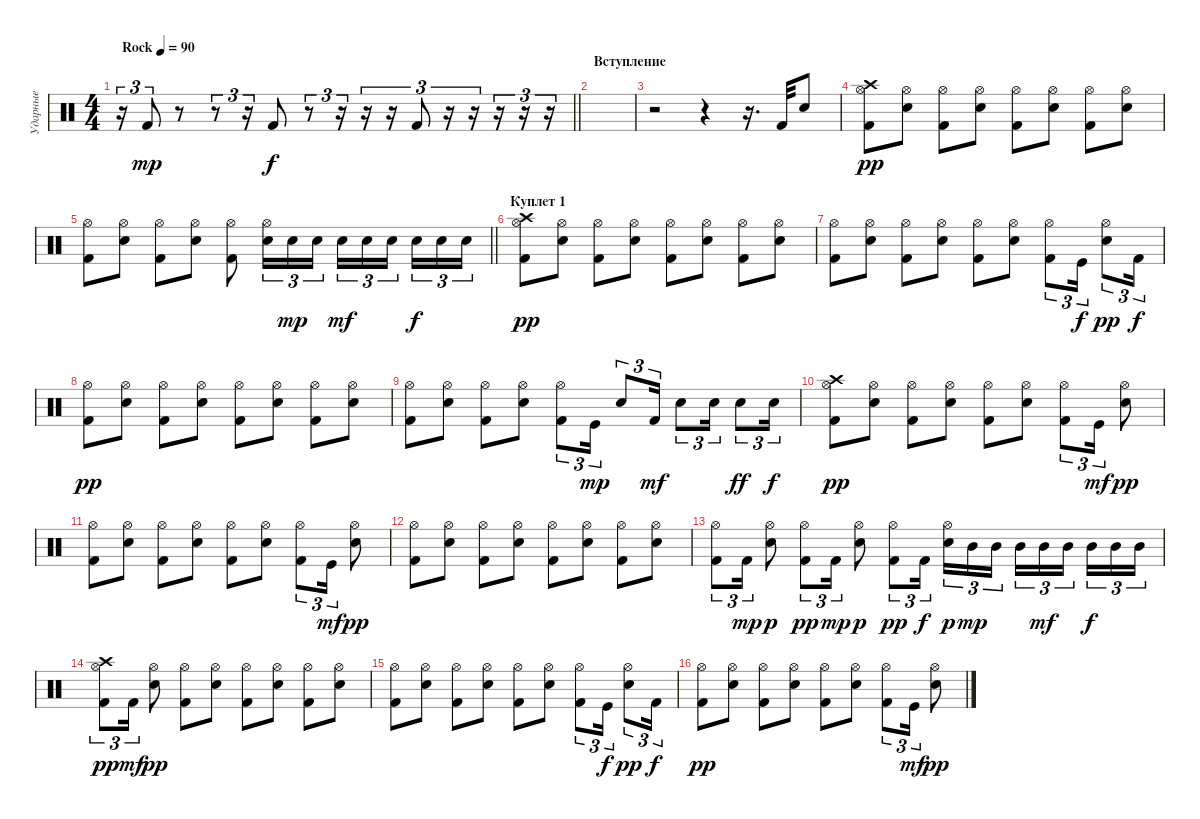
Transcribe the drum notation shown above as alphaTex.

\track ("Ударные" "Ударные") {instrument percussion}
\staff {score}
\articulation defaults
\ts (4 4)
\tempo (90 "Rock")
\clef neutral
\barLineRight lightlight
\ks c
r.16{tu (3 2) dy mp} "Kick (hit) 2".8{tu (3 2)} r.8 r.8{tu (3 2)} r.16{tu (3 2)} "Kick (hit) 2".8{dy f} r.8{tu (3 2)} r.16{tu (3 2)} r.16{tu (3 2)} r.16{tu (3 2)} "Kick (hit) 2".8{tu (3 2)} r.16{tu (3 2)} r.16{tu (3 2)} r.16{tu (3 2)} r.16{tu (3 2)} r.16{tu (3 2)} |
\section ("" "Вступление")
|
r.2 r.4 r.16{d} "Kick (hit) 2".32 "Snare (hit) 2".8 |
("Crash high (hit)" "Hi-Hat (open)" "Kick (hit) 2").8{dy pp} ("Hi-Hat (open)" "Snare (hit) 2").8 ("Hi-Hat (open)" "Kick (hit) 2").8 ("Hi-Hat (open)" "Snare (hit) 2").8 ("Hi-Hat (open)" "Kick (hit) 2").8 ("Hi-Hat (open)" "Snare (hit) 2").8 ("Hi-Hat (open)" "Kick (hit) 2").8 ("Hi-Hat (open)" "Snare (hit) 2").8 |
\barLineRight lightlight
("Hi-Hat (open)" "Kick (hit) 2").8 ("Hi-Hat (open)" "Snare (hit) 2").8 ("Hi-Hat (open)" "Kick (hit) 2").8 ("Hi-Hat (open)" "Snare (hit) 2").8 ("Hi-Hat (open)" "Kick (hit) 2").8 ("Hi-Hat (open)" "Snare (hit) 2").16{tu (3 2)} "Snare (hit) 2".16{tu (3 2) dy mp} "Snare (hit) 2".16{tu (3 2)} "Snare (hit) 2".16{tu (3 2) dy mf} "Snare (hit) 2".16{tu (3 2)} "Snare (hit) 2".16{tu (3 2) beam splitsecondary} "Snare (hit) 2".16{tu (3 2) dy f} "Snare (hit) 2".16{tu (3 2)} "Snare (hit) 2".16{tu (3 2)} |
\section ("" "Куплет 1")
("Crash high (hit)" "Hi-Hat (open)" "Kick (hit) 2").8{dy pp} ("Hi-Hat (open)" "Snare (hit) 2").8 ("Hi-Hat (open)" "Kick (hit) 2").8 ("Hi-Hat (open)" "Snare (hit) 2").8 ("Hi-Hat (open)" "Kick (hit) 2").8 ("Hi-Hat (open)" "Snare (hit) 2").8 ("Hi-Hat (open)" "Kick (hit) 2").8 ("Hi-Hat (open)" "Snare (hit) 2").8 |
("Hi-Hat (open)" "Kick (hit) 2").8 ("Hi-Hat (open)" "Snare (hit) 2").8 ("Hi-Hat (open)" "Kick (hit) 2").8 ("Hi-Hat (open)" "Snare (hit) 2").8 ("Hi-Hat (open)" "Kick (hit) 2").8 ("Hi-Hat (open)" "Snare (hit) 2").8 ("Hi-Hat (open)" "Kick (hit) 2").8{tu (3 2)} "Kick (hit)".16{tu (3 2) dy f} ("Hi-Hat (open)" "Snare (hit) 2").8{tu (3 2) dy pp} "Kick (hit) 2".16{tu (3 2) dy f} |
("Hi-Hat (open)" "Kick (hit) 2").8{dy pp} ("Hi-Hat (open)" "Snare (hit) 2").8 ("Hi-Hat (open)" "Kick (hit) 2").8 ("Hi-Hat (open)" "Snare (hit) 2").8 ("Hi-Hat (open)" "Kick (hit) 2").8 ("Hi-Hat (open)" "Snare (hit) 2").8 ("Hi-Hat (open)" "Kick (hit) 2").8 ("Hi-Hat (open)" "Snare (hit) 2").8 |
("Hi-Hat (open)" "Kick (hit) 2").8 ("Hi-Hat (open)" "Snare (hit) 2").8 ("Hi-Hat (open)" "Kick (hit) 2").8 ("Hi-Hat (open)" "Snare (hit) 2").8 ("Hi-Hat (open)" "Kick (hit) 2").8{tu (3 2)} "Kick (hit)".16{tu (3 2) dy mp} "Snare (hit) 2".8{tu (3 2)} "Kick (hit) 2".16{tu (3 2) dy mf} "Electric Snare (hit)".8{tu (3 2)} "Snare (hit) 2".16{tu (3 2)} "Electric Snare (hit)".8{tu (3 2) dy ff} "Snare (hit) 2".16{tu (3 2) dy f} |
("Crash high (hit)" "Hi-Hat (open)" "Kick (hit) 2").8{dy pp} ("Hi-Hat (open)" "Snare (hit) 2").8 ("Hi-Hat (open)" "Kick (hit) 2").8 ("Hi-Hat (open)" "Snare (hit) 2").8 ("Hi-Hat (open)" "Kick (hit) 2").8 ("Hi-Hat (open)" "Snare (hit) 2").8 ("Hi-Hat (open)" "Kick (hit) 2").8{tu (3 2)} "Kick (hit)".16{tu (3 2) dy mf} ("Hi-Hat (open)" "Snare (hit) 2").8{dy pp} |
("Hi-Hat (open)" "Kick (hit) 2").8 ("Hi-Hat (open)" "Snare (hit) 2").8 ("Hi-Hat (open)" "Kick (hit) 2").8 ("Hi-Hat (open)" "Snare (hit) 2").8 ("Hi-Hat (open)" "Kick (hit) 2").8 ("Hi-Hat (open)" "Snare (hit) 2").8 ("Hi-Hat (open)" "Kick (hit) 2").8{tu (3 2)} "Kick (hit)".16{tu (3 2) dy mf} ("Hi-Hat (open)" "Snare (hit) 2").8{dy pp} |
("Hi-Hat (open)" "Kick (hit) 2").8 ("Hi-Hat (open)" "Snare (hit) 2").8 ("Hi-Hat (open)" "Kick (hit) 2").8 ("Hi-Hat (open)" "Snare (hit) 2").8 ("Hi-Hat (open)" "Kick (hit) 2").8 ("Hi-Hat (open)" "Snare (hit) 2").8 ("Hi-Hat (open)" "Kick (hit) 2").8 ("Hi-Hat (open)" "Snare (hit) 2").8 |
("Hi-Hat (open)" "Kick (hit) 2").8{tu (3 2)} "Kick (hit) 2".16{tu (3 2) dy mp} ("Hi-Hat (open)" "Snare (hit) 2").8{dy p} ("Hi-Hat (open)" "Kick (hit) 2").8{tu (3 2) dy pp} "Kick (hit) 2".16{tu (3 2) dy mp} ("Hi-Hat (open)" "Snare (hit) 2").8{dy p} ("Hi-Hat (open)" "Kick (hit) 2").8{tu (3 2) dy pp} "Kick (hit) 2".16{tu (3 2) dy f beam splitsecondary} ("Hi-Hat (open)" "Snare (hit) 2").16{tu (3 2) dy p} "Mid Tom (hit)".16{tu (3 2) dy mp} "Mid Tom (hit)".16{tu (3 2)} "Mid Tom (hit)".16{tu (3 2)} "Mid Tom (hit)".16{tu (3 2) dy mf} "Mid Tom (hit)".16{tu (3 2) beam splitsecondary} "Mid Tom (hit)".16{tu (3 2) dy f} "Mid Tom (hit)".16{tu (3 2)} "Mid Tom (hit)".16{tu (3 2)} |
("Crash high (hit)" "Hi-Hat (open)" "Kick (hit) 2").8{tu (3 2) dy pp} "Kick (hit) 2".16{tu (3 2) dy mf} ("Hi-Hat (open)" "Snare (hit) 2").8{dy pp} ("Hi-Hat (open)" "Kick (hit) 2").8 ("Hi-Hat (open)" "Snare (hit) 2").8 ("Hi-Hat (open)" "Kick (hit) 2").8 ("Hi-Hat (open)" "Snare (hit) 2").8 ("Hi-Hat (open)" "Kick (hit) 2").8 ("Hi-Hat (open)" "Snare (hit) 2").8 |
("Hi-Hat (open)" "Kick (hit) 2").8 ("Hi-Hat (open)" "Snare (hit) 2").8 ("Hi-Hat (open)" "Kick (hit) 2").8 ("Hi-Hat (open)" "Snare (hit) 2").8 ("Hi-Hat (open)" "Kick (hit) 2").8 ("Hi-Hat (open)" "Snare (hit) 2").8 ("Hi-Hat (open)" "Kick (hit) 2").8{tu (3 2)} "Kick (hit)".16{tu (3 2) dy f} ("Hi-Hat (open)" "Snare (hit) 2").8{tu (3 2) dy pp} "Kick (hit) 2".16{tu (3 2) dy f} |
("Hi-Hat (open)" "Kick (hit) 2").8{dy pp} ("Hi-Hat (open)" "Snare (hit) 2").8 ("Hi-Hat (open)" "Kick (hit) 2").8 ("Hi-Hat (open)" "Snare (hit) 2").8 ("Hi-Hat (open)" "Kick (hit) 2").8 ("Hi-Hat (open)" "Snare (hit) 2").8 ("Hi-Hat (open)" "Kick (hit) 2").8{tu (3 2)} "Kick (hit)".16{tu (3 2) dy mf} ("Hi-Hat (open)" "Snare (hit) 2").8{dy pp}
